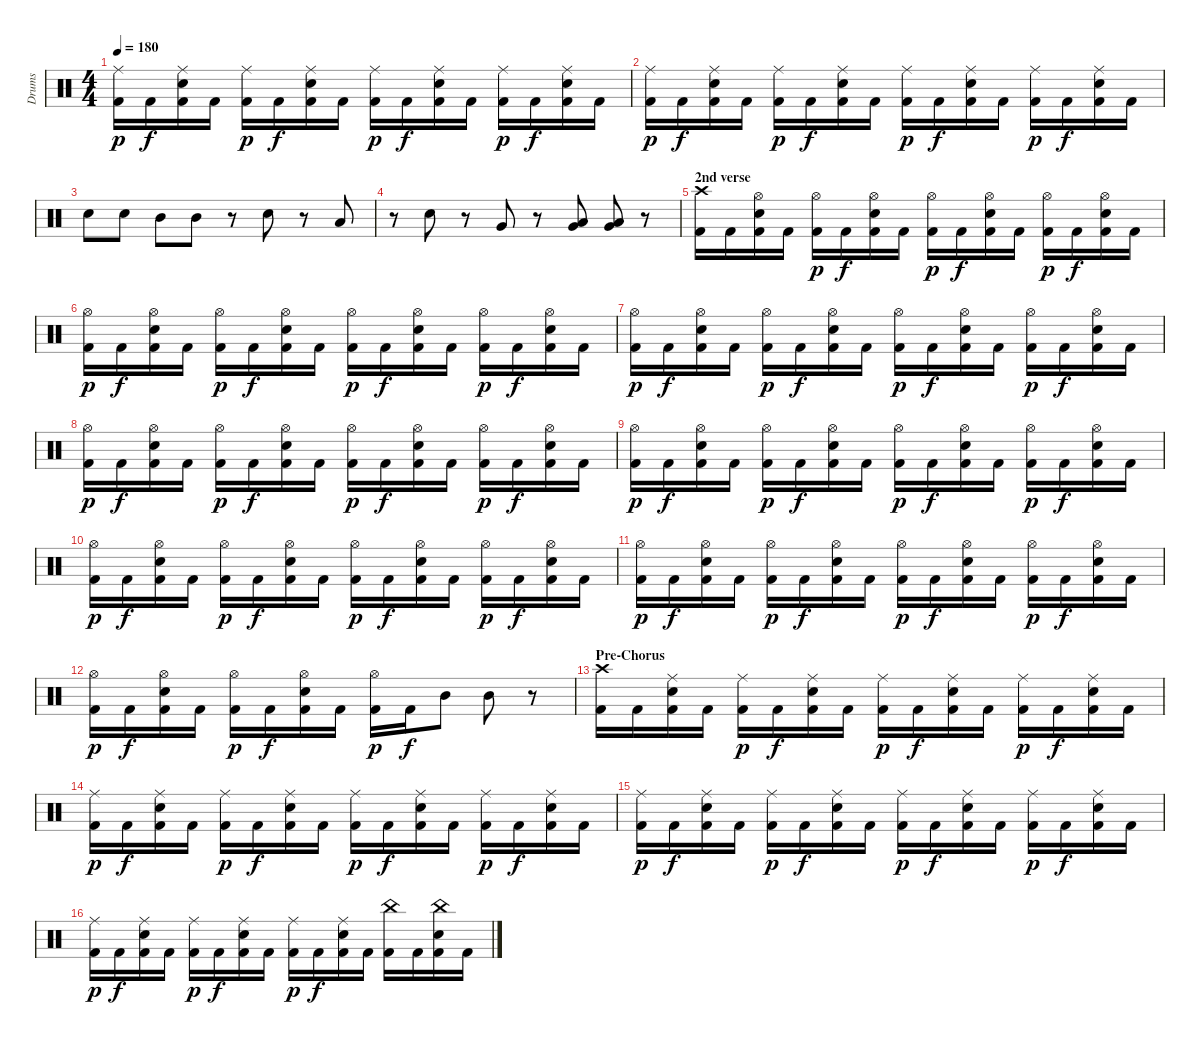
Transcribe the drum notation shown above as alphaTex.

\track ("Drums" "Drums") {instrument percussion}
\staff {score}
\articulation defaults
\ts (4 4)
\tempo 180
\clef neutral
\ks c
("Ride (middle)" "Kick (hit) 2").16{dy p} "Kick (hit) 2".16{dy f} ("Ride (middle)" "Snare (hit) 2" "Kick (hit) 2").16 "Kick (hit) 2".16 ("Ride (middle)" "Kick (hit) 2").16{dy p} "Kick (hit) 2".16{dy f} ("Ride (middle)" "Snare (hit) 2" "Kick (hit) 2").16 "Kick (hit) 2".16 ("Ride (middle)" "Kick (hit) 2").16{dy p} "Kick (hit) 2".16{dy f} ("Ride (middle)" "Snare (hit) 2" "Kick (hit) 2").16 "Kick (hit) 2".16 ("Ride (middle)" "Kick (hit) 2").16{dy p} "Kick (hit) 2".16{dy f} ("Ride (middle)" "Snare (hit) 2" "Kick (hit) 2").16 "Kick (hit) 2".16 |
("Ride (middle)" "Kick (hit) 2").16{dy p} "Kick (hit) 2".16{dy f} ("Ride (middle)" "Snare (hit) 2" "Kick (hit) 2").16 "Kick (hit) 2".16 ("Ride (middle)" "Kick (hit) 2").16{dy p} "Kick (hit) 2".16{dy f} ("Ride (middle)" "Snare (hit) 2" "Kick (hit) 2").16 "Kick (hit) 2".16 ("Ride (middle)" "Kick (hit) 2").16{dy p} "Kick (hit) 2".16{dy f} ("Ride (middle)" "Snare (hit) 2" "Kick (hit) 2").16 "Kick (hit) 2".16 ("Ride (middle)" "Kick (hit) 2").16{dy p} "Kick (hit) 2".16{dy f} ("Ride (middle)" "Snare (hit) 2" "Kick (hit) 2").16 "Kick (hit) 2".16 |
"Snare (hit) 2".8 "Snare (hit) 2".8 "Mid Tom (hit)".8 "Mid Tom (hit)".8 r.8 "Snare (hit) 2".8 r.8 "Low Tom (hit)".8 |
r.8 "Snare (hit) 2".8 r.8 "Very Low Tom (hit)".8 r.8 ("Very Low Tom (hit)" "Low Floor Tom (hit)").8 ("Very Low Tom (hit)" "Low Floor Tom (hit)").8 r.8 |
\section ("" "2nd verse")
("Crash high (hit)" "Kick (hit) 2").16 "Kick (hit) 2".16 ("Hi-Hat (open)" "Snare (hit) 2" "Kick (hit) 2").16 "Kick (hit) 2".16 ("Hi-Hat (open)" "Kick (hit) 2").16{dy p} "Kick (hit) 2".16{dy f} ("Hi-Hat (open)" "Snare (hit) 2" "Kick (hit) 2").16 "Kick (hit) 2".16 ("Hi-Hat (open)" "Kick (hit) 2").16{dy p} "Kick (hit) 2".16{dy f} ("Hi-Hat (open)" "Snare (hit) 2" "Kick (hit) 2").16 "Kick (hit) 2".16 ("Hi-Hat (open)" "Kick (hit) 2").16{dy p} "Kick (hit) 2".16{dy f} ("Hi-Hat (open)" "Snare (hit) 2" "Kick (hit) 2").16 "Kick (hit) 2".16 |
("Hi-Hat (open)" "Kick (hit) 2").16{dy p} "Kick (hit) 2".16{dy f} ("Hi-Hat (open)" "Snare (hit) 2" "Kick (hit) 2").16 "Kick (hit) 2".16 ("Hi-Hat (open)" "Kick (hit) 2").16{dy p} "Kick (hit) 2".16{dy f} ("Hi-Hat (open)" "Snare (hit) 2" "Kick (hit) 2").16 "Kick (hit) 2".16 ("Hi-Hat (open)" "Kick (hit) 2").16{dy p} "Kick (hit) 2".16{dy f} ("Hi-Hat (open)" "Snare (hit) 2" "Kick (hit) 2").16 "Kick (hit) 2".16 ("Hi-Hat (open)" "Kick (hit) 2").16{dy p} "Kick (hit) 2".16{dy f} ("Hi-Hat (open)" "Snare (hit) 2" "Kick (hit) 2").16 "Kick (hit) 2".16 |
("Hi-Hat (open)" "Kick (hit) 2").16{dy p} "Kick (hit) 2".16{dy f} ("Hi-Hat (open)" "Snare (hit) 2" "Kick (hit) 2").16 "Kick (hit) 2".16 ("Hi-Hat (open)" "Kick (hit) 2").16{dy p} "Kick (hit) 2".16{dy f} ("Hi-Hat (open)" "Snare (hit) 2" "Kick (hit) 2").16 "Kick (hit) 2".16 ("Hi-Hat (open)" "Kick (hit) 2").16{dy p} "Kick (hit) 2".16{dy f} ("Hi-Hat (open)" "Snare (hit) 2" "Kick (hit) 2").16 "Kick (hit) 2".16 ("Hi-Hat (open)" "Kick (hit) 2").16{dy p} "Kick (hit) 2".16{dy f} ("Hi-Hat (open)" "Snare (hit) 2" "Kick (hit) 2").16 "Kick (hit) 2".16 |
("Hi-Hat (open)" "Kick (hit) 2").16{dy p} "Kick (hit) 2".16{dy f} ("Hi-Hat (open)" "Snare (hit) 2" "Kick (hit) 2").16 "Kick (hit) 2".16 ("Hi-Hat (open)" "Kick (hit) 2").16{dy p} "Kick (hit) 2".16{dy f} ("Hi-Hat (open)" "Snare (hit) 2" "Kick (hit) 2").16 "Kick (hit) 2".16 ("Hi-Hat (open)" "Kick (hit) 2").16{dy p} "Kick (hit) 2".16{dy f} ("Hi-Hat (open)" "Snare (hit) 2" "Kick (hit) 2").16 "Kick (hit) 2".16 ("Hi-Hat (open)" "Kick (hit) 2").16{dy p} "Kick (hit) 2".16{dy f} ("Hi-Hat (open)" "Snare (hit) 2" "Kick (hit) 2").16 "Kick (hit) 2".16 |
("Hi-Hat (open)" "Kick (hit) 2").16{dy p} "Kick (hit) 2".16{dy f} ("Hi-Hat (open)" "Snare (hit) 2" "Kick (hit) 2").16 "Kick (hit) 2".16 ("Hi-Hat (open)" "Kick (hit) 2").16{dy p} "Kick (hit) 2".16{dy f} ("Hi-Hat (open)" "Snare (hit) 2" "Kick (hit) 2").16 "Kick (hit) 2".16 ("Hi-Hat (open)" "Kick (hit) 2").16{dy p} "Kick (hit) 2".16{dy f} ("Hi-Hat (open)" "Snare (hit) 2" "Kick (hit) 2").16 "Kick (hit) 2".16 ("Hi-Hat (open)" "Kick (hit) 2").16{dy p} "Kick (hit) 2".16{dy f} ("Hi-Hat (open)" "Snare (hit) 2" "Kick (hit) 2").16 "Kick (hit) 2".16 |
("Hi-Hat (open)" "Kick (hit) 2").16{dy p} "Kick (hit) 2".16{dy f} ("Hi-Hat (open)" "Snare (hit) 2" "Kick (hit) 2").16 "Kick (hit) 2".16 ("Hi-Hat (open)" "Kick (hit) 2").16{dy p} "Kick (hit) 2".16{dy f} ("Hi-Hat (open)" "Snare (hit) 2" "Kick (hit) 2").16 "Kick (hit) 2".16 ("Hi-Hat (open)" "Kick (hit) 2").16{dy p} "Kick (hit) 2".16{dy f} ("Hi-Hat (open)" "Snare (hit) 2" "Kick (hit) 2").16 "Kick (hit) 2".16 ("Hi-Hat (open)" "Kick (hit) 2").16{dy p} "Kick (hit) 2".16{dy f} ("Hi-Hat (open)" "Snare (hit) 2" "Kick (hit) 2").16 "Kick (hit) 2".16 |
("Hi-Hat (open)" "Kick (hit) 2").16{dy p} "Kick (hit) 2".16{dy f} ("Hi-Hat (open)" "Snare (hit) 2" "Kick (hit) 2").16 "Kick (hit) 2".16 ("Hi-Hat (open)" "Kick (hit) 2").16{dy p} "Kick (hit) 2".16{dy f} ("Hi-Hat (open)" "Snare (hit) 2" "Kick (hit) 2").16 "Kick (hit) 2".16 ("Hi-Hat (open)" "Kick (hit) 2").16{dy p} "Kick (hit) 2".16{dy f} ("Hi-Hat (open)" "Snare (hit) 2" "Kick (hit) 2").16 "Kick (hit) 2".16 ("Hi-Hat (open)" "Kick (hit) 2").16{dy p} "Kick (hit) 2".16{dy f} ("Hi-Hat (open)" "Snare (hit) 2" "Kick (hit) 2").16 "Kick (hit) 2".16 |
("Hi-Hat (open)" "Kick (hit) 2").16{dy p} "Kick (hit) 2".16{dy f} ("Hi-Hat (open)" "Snare (hit) 2" "Kick (hit) 2").16 "Kick (hit) 2".16 ("Hi-Hat (open)" "Kick (hit) 2").16{dy p} "Kick (hit) 2".16{dy f} ("Hi-Hat (open)" "Snare (hit) 2" "Kick (hit) 2").16 "Kick (hit) 2".16 ("Hi-Hat (open)" "Kick (hit) 2").16{dy p} "Kick (hit) 2".16{dy f} "Mid Tom (hit)".8 "Mid Tom (hit)".8 r.8 |
\section ("" "Pre-Chorus")
("Crash high (hit)" "Kick (hit) 2").16 "Kick (hit) 2".16 ("Ride (middle)" "Snare (hit) 2" "Kick (hit) 2").16 "Kick (hit) 2".16 ("Ride (middle)" "Kick (hit) 2").16{dy p} "Kick (hit) 2".16{dy f} ("Ride (middle)" "Snare (hit) 2" "Kick (hit) 2").16 "Kick (hit) 2".16 ("Ride (middle)" "Kick (hit) 2").16{dy p} "Kick (hit) 2".16{dy f} ("Ride (middle)" "Snare (hit) 2" "Kick (hit) 2").16 "Kick (hit) 2".16 ("Ride (middle)" "Kick (hit) 2").16{dy p} "Kick (hit) 2".16{dy f} ("Ride (middle)" "Snare (hit) 2" "Kick (hit) 2").16 "Kick (hit) 2".16 |
("Ride (middle)" "Kick (hit) 2").16{dy p} "Kick (hit) 2".16{dy f} ("Ride (middle)" "Snare (hit) 2" "Kick (hit) 2").16 "Kick (hit) 2".16 ("Ride (middle)" "Kick (hit) 2").16{dy p} "Kick (hit) 2".16{dy f} ("Ride (middle)" "Snare (hit) 2" "Kick (hit) 2").16 "Kick (hit) 2".16 ("Ride (middle)" "Kick (hit) 2").16{dy p} "Kick (hit) 2".16{dy f} ("Ride (middle)" "Snare (hit) 2" "Kick (hit) 2").16 "Kick (hit) 2".16 ("Ride (middle)" "Kick (hit) 2").16{dy p} "Kick (hit) 2".16{dy f} ("Ride (middle)" "Snare (hit) 2" "Kick (hit) 2").16 "Kick (hit) 2".16 |
("Ride (middle)" "Kick (hit) 2").16{dy p} "Kick (hit) 2".16{dy f} ("Ride (middle)" "Snare (hit) 2" "Kick (hit) 2").16 "Kick (hit) 2".16 ("Ride (middle)" "Kick (hit) 2").16{dy p} "Kick (hit) 2".16{dy f} ("Ride (middle)" "Snare (hit) 2" "Kick (hit) 2").16 "Kick (hit) 2".16 ("Ride (middle)" "Kick (hit) 2").16{dy p} "Kick (hit) 2".16{dy f} ("Ride (middle)" "Snare (hit) 2" "Kick (hit) 2").16 "Kick (hit) 2".16 ("Ride (middle)" "Kick (hit) 2").16{dy p} "Kick (hit) 2".16{dy f} ("Ride (middle)" "Snare (hit) 2" "Kick (hit) 2").16 "Kick (hit) 2".16 |
("Ride (middle)" "Kick (hit) 2").16{dy p} "Kick (hit) 2".16{dy f} ("Ride (middle)" "Snare (hit) 2" "Kick (hit) 2").16 "Kick (hit) 2".16 ("Ride (middle)" "Kick (hit) 2").16{dy p} "Kick (hit) 2".16{dy f} ("Ride (middle)" "Snare (hit) 2" "Kick (hit) 2").16 "Kick (hit) 2".16 ("Ride (middle)" "Kick (hit) 2").16{dy p} "Kick (hit) 2".16{dy f} ("Ride (middle)" "Snare (hit) 2" "Kick (hit) 2").16 "Kick (hit) 2".16 ("China (hit)" "Kick (hit) 2").16 "Kick (hit) 2".16 ("China (hit)" "Snare (hit) 2" "Kick (hit) 2").16 "Kick (hit) 2".16
